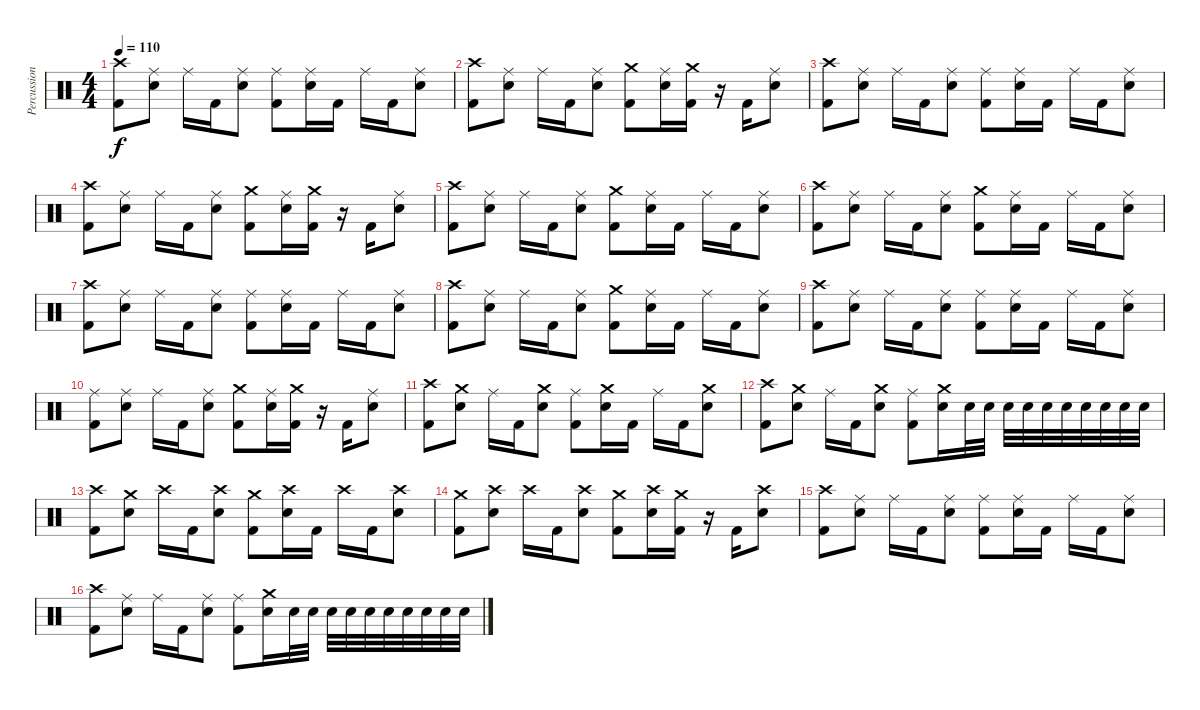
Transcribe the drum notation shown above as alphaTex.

\track ("Percussion" "Percussion") {instrument percussion}
\staff {score}
\articulation defaults
\ts (4 4)
\tempo 110
\clef neutral
\ks c
("Crash high (hit)" "Kick (hit) 2").8{dy f} ("Ride (middle)" "Electric Snare (hit)").8 "Ride (middle)".16 "Kick (hit) 2".16 ("Ride (middle)" "Electric Snare (hit)").8 ("Ride (middle)" "Kick (hit) 2").8 ("Ride (middle)" "Electric Snare (hit)").16 "Kick (hit) 2".16 "Ride (middle)".16 "Kick (hit) 2".16 ("Ride (middle)" "Electric Snare (hit)").8 |
("Crash high (hit)" "Kick (hit) 2").8 ("Ride (middle)" "Electric Snare (hit)").8 "Ride (middle)".16 "Kick (hit) 2".16 ("Ride (middle)" "Electric Snare (hit)").8 ("Crash medium (hit)" "Kick (hit) 2").8 ("Ride (middle)" "Electric Snare (hit)").16 ("Crash medium (hit)" "Kick (hit) 2").16 r.16 "Kick (hit) 2".16 ("Ride (middle)" "Electric Snare (hit)").8 |
("Crash high (hit)" "Kick (hit) 2").8 ("Ride (middle)" "Electric Snare (hit)").8 "Ride (middle)".16 "Kick (hit) 2".16 ("Ride (middle)" "Electric Snare (hit)").8 ("Ride (middle)" "Kick (hit) 2").8 ("Ride (middle)" "Electric Snare (hit)").16 "Kick (hit) 2".16 "Ride (middle)".16 "Kick (hit) 2".16 ("Ride (middle)" "Electric Snare (hit)").8 |
("Crash high (hit)" "Kick (hit) 2").8 ("Ride (middle)" "Electric Snare (hit)").8 "Ride (middle)".16 "Kick (hit) 2".16 ("Ride (middle)" "Electric Snare (hit)").8 ("Crash medium (hit)" "Kick (hit) 2").8 ("Ride (middle)" "Electric Snare (hit)").16 ("Crash medium (hit)" "Kick (hit) 2").16 r.16 "Kick (hit) 2".16 ("Ride (middle)" "Electric Snare (hit)").8 |
("Crash high (hit)" "Kick (hit) 2").8 ("Ride (middle)" "Electric Snare (hit)").8 "Ride (middle)".16 "Kick (hit) 2".16 ("Ride (middle)" "Electric Snare (hit)").8 ("Crash medium (hit)" "Kick (hit) 2").8 ("Ride (middle)" "Electric Snare (hit)").16 "Kick (hit) 2".16 "Ride (middle)".16 "Kick (hit) 2".16 ("Ride (middle)" "Electric Snare (hit)").8 |
("Crash high (hit)" "Kick (hit) 2").8 ("Ride (middle)" "Electric Snare (hit)").8 "Ride (middle)".16 "Kick (hit) 2".16 ("Ride (middle)" "Electric Snare (hit)").8 ("Crash medium (hit)" "Kick (hit) 2").8 ("Ride (middle)" "Electric Snare (hit)").16 "Kick (hit) 2".16 "Ride (middle)".16 "Kick (hit) 2".16 ("Ride (middle)" "Electric Snare (hit)").8 |
("Crash high (hit)" "Kick (hit) 2").8 ("Ride (middle)" "Electric Snare (hit)").8 "Ride (middle)".16 "Kick (hit) 2".16 ("Ride (middle)" "Electric Snare (hit)").8 ("Ride (middle)" "Kick (hit) 2").8 ("Ride (middle)" "Electric Snare (hit)").16 "Kick (hit) 2".16 "Ride (middle)".16 "Kick (hit) 2".16 ("Ride (middle)" "Electric Snare (hit)").8 |
("Crash high (hit)" "Kick (hit) 2").8 ("Ride (middle)" "Electric Snare (hit)").8 "Ride (middle)".16 "Kick (hit) 2".16 ("Ride (middle)" "Electric Snare (hit)").8 ("Crash medium (hit)" "Kick (hit) 2").8 ("Ride (middle)" "Electric Snare (hit)").16 "Kick (hit) 2".16 "Ride (middle)".16 "Kick (hit) 2".16 ("Ride (middle)" "Electric Snare (hit)").8 |
("Crash high (hit)" "Kick (hit) 2").8 ("Ride (middle)" "Electric Snare (hit)").8 "Ride (middle)".16 "Kick (hit) 2".16 ("Ride (middle)" "Electric Snare (hit)").8 ("Ride (middle)" "Kick (hit) 2").8 ("Ride (middle)" "Electric Snare (hit)").16 "Kick (hit) 2".16 "Ride (middle)".16 "Kick (hit) 2".16 ("Ride (middle)" "Electric Snare (hit)").8 |
("Ride (middle)" "Kick (hit) 2").8 ("Ride (middle)" "Electric Snare (hit)").8 "Ride (middle)".16 "Kick (hit) 2".16 ("Ride (middle)" "Electric Snare (hit)").8 ("Crash medium (hit)" "Kick (hit) 2").8 ("Ride (middle)" "Electric Snare (hit)").16 ("Crash medium (hit)" "Kick (hit) 2").16 r.16 "Kick (hit) 2".16 ("Ride (middle)" "Electric Snare (hit)").8 |
("Crash high (hit)" "Kick (hit) 2").8 ("Crash medium (hit)" "Electric Snare (hit)").8 "Ride (middle)".16 "Kick (hit) 2".16 ("Crash medium (hit)" "Electric Snare (hit)").8 ("Ride (middle)" "Kick (hit) 2").8 ("Crash medium (hit)" "Electric Snare (hit)").16 "Kick (hit) 2".16 "Ride (middle)".16 "Kick (hit) 2".16 ("Crash medium (hit)" "Electric Snare (hit)").8 |
("Crash high (hit)" "Kick (hit) 2").8 ("Crash medium (hit)" "Electric Snare (hit)").8 "Ride (middle)".16 "Kick (hit) 2".16 ("Crash medium (hit)" "Electric Snare (hit)").8 ("Ride (middle)" "Kick (hit) 2").8 ("Crash medium (hit)" "Electric Snare (hit)").16 "Electric Snare (hit)".32 "Electric Snare (hit)".32 "Electric Snare (hit)".32 "Electric Snare (hit)".32 "Electric Snare (hit)".32 "Electric Snare (hit)".32 "Electric Snare (hit)".32 "Electric Snare (hit)".32 "Electric Snare (hit)".32 "Electric Snare (hit)".32 |
("Crash high (hit)" "Kick (hit) 2").8 ("Crash medium (hit)" "Electric Snare (hit)").8 "Crash high (hit)".16 "Kick (hit) 2".16 ("Crash high (hit)" "Electric Snare (hit)").8 ("Crash medium (hit)" "Kick (hit) 2").8 ("Crash high (hit)" "Electric Snare (hit)").16 "Kick (hit) 2".16 "Crash high (hit)".16 "Kick (hit) 2".16 ("Crash high (hit)" "Electric Snare (hit)").8 |
("Crash medium (hit)" "Kick (hit) 2").8 ("Crash high (hit)" "Electric Snare (hit)").8 "Crash high (hit)".16 "Kick (hit) 2".16 ("Crash high (hit)" "Electric Snare (hit)").8 ("Crash medium (hit)" "Kick (hit) 2").8 ("Crash high (hit)" "Electric Snare (hit)").16 ("Crash medium (hit)" "Kick (hit) 2").16 r.16 "Kick (hit) 2".16 ("Crash high (hit)" "Electric Snare (hit)").8 |
("Crash high (hit)" "Kick (hit) 2").8 ("Ride (middle)" "Electric Snare (hit)").8 "Ride (middle)".16 "Kick (hit) 2".16 ("Ride (middle)" "Electric Snare (hit)").8 ("Ride (middle)" "Kick (hit) 2").8 ("Ride (middle)" "Electric Snare (hit)").16 "Kick (hit) 2".16 "Ride (middle)".16 "Kick (hit) 2".16 ("Ride (middle)" "Electric Snare (hit)").8 |
("Crash high (hit)" "Kick (hit) 2").8 ("Ride (middle)" "Electric Snare (hit)").8 "Ride (middle)".16 "Kick (hit) 2".16 ("Ride (middle)" "Electric Snare (hit)").8 ("Ride (middle)" "Kick (hit) 2").8 ("Crash medium (hit)" "Electric Snare (hit)").16 "Electric Snare (hit)".32 "Electric Snare (hit)".32 "Electric Snare (hit)".32 "Electric Snare (hit)".32 "Electric Snare (hit)".32 "Electric Snare (hit)".32 "Electric Snare (hit)".32 "Electric Snare (hit)".32 "Electric Snare (hit)".32 "Electric Snare (hit)".32
